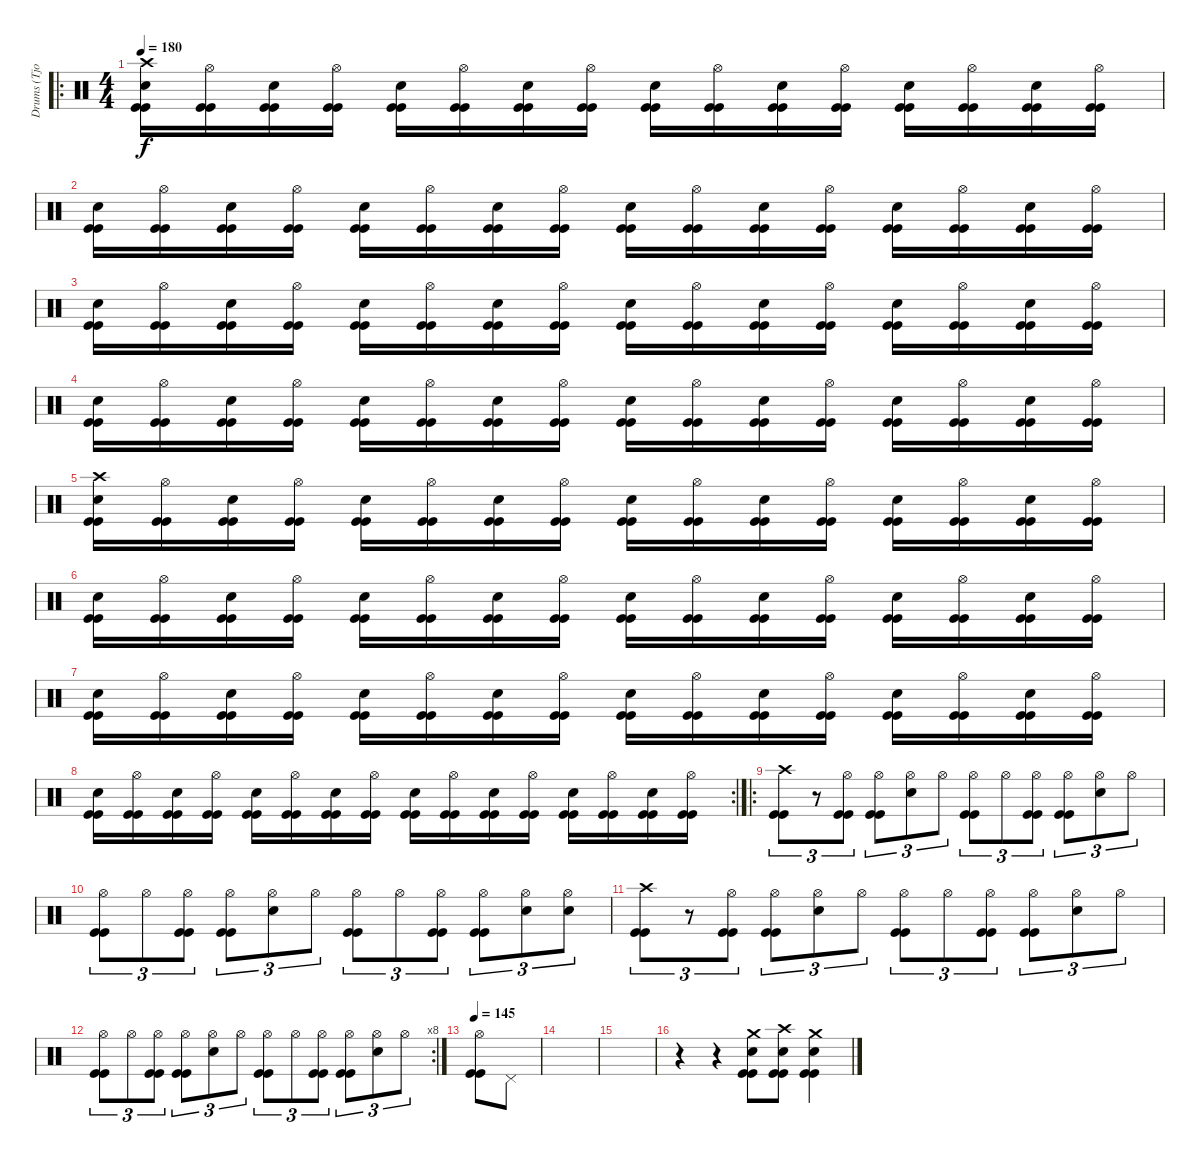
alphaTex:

\track ("Drums (Tjodalv)" "Drums (Tjo") {instrument percussion}
\staff {score}
\articulation defaults
\ro
\ts (4 4)
\tempo 180
\clef neutral
\ks c
("Snare (hit) 2" "Crash high (hit)" "Kick (hit)" "Kick (hit)").16{dy f} ("Hi-Hat (open)" "Kick (hit)" "Kick (hit)").16 ("Snare (hit) 2" "Kick (hit)" "Kick (hit)").16 ("Hi-Hat (open)" "Kick (hit)" "Kick (hit)").16 ("Snare (hit) 2" "Kick (hit)" "Kick (hit)").16 ("Hi-Hat (open)" "Kick (hit)" "Kick (hit)").16 ("Snare (hit) 2" "Kick (hit)" "Kick (hit)").16 ("Hi-Hat (open)" "Kick (hit)" "Kick (hit)").16 ("Snare (hit) 2" "Kick (hit)" "Kick (hit)").16 ("Hi-Hat (open)" "Kick (hit)" "Kick (hit)").16 ("Snare (hit) 2" "Kick (hit)" "Kick (hit)").16 ("Hi-Hat (open)" "Kick (hit)" "Kick (hit)").16 ("Snare (hit) 2" "Kick (hit)" "Kick (hit)").16 ("Hi-Hat (open)" "Kick (hit)" "Kick (hit)").16 ("Snare (hit) 2" "Kick (hit)" "Kick (hit)").16 ("Hi-Hat (open)" "Kick (hit)" "Kick (hit)").16 |
("Snare (hit) 2" "Kick (hit)" "Kick (hit)").16 ("Hi-Hat (open)" "Kick (hit)" "Kick (hit)").16 ("Snare (hit) 2" "Kick (hit)" "Kick (hit)").16 ("Hi-Hat (open)" "Kick (hit)" "Kick (hit)").16 ("Snare (hit) 2" "Kick (hit)" "Kick (hit)").16 ("Hi-Hat (open)" "Kick (hit)" "Kick (hit)").16 ("Snare (hit) 2" "Kick (hit)" "Kick (hit)").16 ("Hi-Hat (open)" "Kick (hit)" "Kick (hit)").16 ("Snare (hit) 2" "Kick (hit)" "Kick (hit)").16 ("Hi-Hat (open)" "Kick (hit)" "Kick (hit)").16 ("Snare (hit) 2" "Kick (hit)" "Kick (hit)").16 ("Hi-Hat (open)" "Kick (hit)" "Kick (hit)").16 ("Snare (hit) 2" "Kick (hit)" "Kick (hit)").16 ("Hi-Hat (open)" "Kick (hit)" "Kick (hit)").16 ("Snare (hit) 2" "Kick (hit)" "Kick (hit)").16 ("Hi-Hat (open)" "Kick (hit)" "Kick (hit)").16 |
("Snare (hit) 2" "Kick (hit)" "Kick (hit)").16 ("Hi-Hat (open)" "Kick (hit)" "Kick (hit)").16 ("Snare (hit) 2" "Kick (hit)" "Kick (hit)").16 ("Hi-Hat (open)" "Kick (hit)" "Kick (hit)").16 ("Snare (hit) 2" "Kick (hit)" "Kick (hit)").16 ("Hi-Hat (open)" "Kick (hit)" "Kick (hit)").16 ("Snare (hit) 2" "Kick (hit)" "Kick (hit)").16 ("Hi-Hat (open)" "Kick (hit)" "Kick (hit)").16 ("Snare (hit) 2" "Kick (hit)" "Kick (hit)").16 ("Hi-Hat (open)" "Kick (hit)" "Kick (hit)").16 ("Snare (hit) 2" "Kick (hit)" "Kick (hit)").16 ("Hi-Hat (open)" "Kick (hit)" "Kick (hit)").16 ("Snare (hit) 2" "Kick (hit)" "Kick (hit)").16 ("Hi-Hat (open)" "Kick (hit)" "Kick (hit)").16 ("Snare (hit) 2" "Kick (hit)" "Kick (hit)").16 ("Hi-Hat (open)" "Kick (hit)" "Kick (hit)").16 |
("Snare (hit) 2" "Kick (hit)" "Kick (hit)").16 ("Hi-Hat (open)" "Kick (hit)" "Kick (hit)").16 ("Snare (hit) 2" "Kick (hit)" "Kick (hit)").16 ("Hi-Hat (open)" "Kick (hit)" "Kick (hit)").16 ("Snare (hit) 2" "Kick (hit)" "Kick (hit)").16 ("Hi-Hat (open)" "Kick (hit)" "Kick (hit)").16 ("Snare (hit) 2" "Kick (hit)" "Kick (hit)").16 ("Hi-Hat (open)" "Kick (hit)" "Kick (hit)").16 ("Snare (hit) 2" "Kick (hit)" "Kick (hit)").16 ("Hi-Hat (open)" "Kick (hit)" "Kick (hit)").16 ("Snare (hit) 2" "Kick (hit)" "Kick (hit)").16 ("Hi-Hat (open)" "Kick (hit)" "Kick (hit)").16 ("Snare (hit) 2" "Kick (hit)" "Kick (hit)").16 ("Hi-Hat (open)" "Kick (hit)" "Kick (hit)").16 ("Snare (hit) 2" "Kick (hit)" "Kick (hit)").16 ("Hi-Hat (open)" "Kick (hit)" "Kick (hit)").16 |
("Snare (hit) 2" "Crash high (hit)" "Kick (hit)" "Kick (hit)").16 ("Hi-Hat (open)" "Kick (hit)" "Kick (hit)").16 ("Snare (hit) 2" "Kick (hit)" "Kick (hit)").16 ("Hi-Hat (open)" "Kick (hit)" "Kick (hit)").16 ("Snare (hit) 2" "Kick (hit)" "Kick (hit)").16 ("Hi-Hat (open)" "Kick (hit)" "Kick (hit)").16 ("Snare (hit) 2" "Kick (hit)" "Kick (hit)").16 ("Hi-Hat (open)" "Kick (hit)" "Kick (hit)").16 ("Snare (hit) 2" "Kick (hit)" "Kick (hit)").16 ("Hi-Hat (open)" "Kick (hit)" "Kick (hit)").16 ("Snare (hit) 2" "Kick (hit)" "Kick (hit)").16 ("Hi-Hat (open)" "Kick (hit)" "Kick (hit)").16 ("Snare (hit) 2" "Kick (hit)" "Kick (hit)").16 ("Hi-Hat (open)" "Kick (hit)" "Kick (hit)").16 ("Snare (hit) 2" "Kick (hit)" "Kick (hit)").16 ("Hi-Hat (open)" "Kick (hit)" "Kick (hit)").16 |
("Snare (hit) 2" "Kick (hit)" "Kick (hit)").16 ("Hi-Hat (open)" "Kick (hit)" "Kick (hit)").16 ("Snare (hit) 2" "Kick (hit)" "Kick (hit)").16 ("Hi-Hat (open)" "Kick (hit)" "Kick (hit)").16 ("Snare (hit) 2" "Kick (hit)" "Kick (hit)").16 ("Hi-Hat (open)" "Kick (hit)" "Kick (hit)").16 ("Snare (hit) 2" "Kick (hit)" "Kick (hit)").16 ("Hi-Hat (open)" "Kick (hit)" "Kick (hit)").16 ("Snare (hit) 2" "Kick (hit)" "Kick (hit)").16 ("Hi-Hat (open)" "Kick (hit)" "Kick (hit)").16 ("Snare (hit) 2" "Kick (hit)" "Kick (hit)").16 ("Hi-Hat (open)" "Kick (hit)" "Kick (hit)").16 ("Snare (hit) 2" "Kick (hit)" "Kick (hit)").16 ("Hi-Hat (open)" "Kick (hit)" "Kick (hit)").16 ("Snare (hit) 2" "Kick (hit)" "Kick (hit)").16 ("Hi-Hat (open)" "Kick (hit)" "Kick (hit)").16 |
("Snare (hit) 2" "Kick (hit)" "Kick (hit)").16 ("Hi-Hat (open)" "Kick (hit)" "Kick (hit)").16 ("Snare (hit) 2" "Kick (hit)" "Kick (hit)").16 ("Hi-Hat (open)" "Kick (hit)" "Kick (hit)").16 ("Snare (hit) 2" "Kick (hit)" "Kick (hit)").16 ("Hi-Hat (open)" "Kick (hit)" "Kick (hit)").16 ("Snare (hit) 2" "Kick (hit)" "Kick (hit)").16 ("Hi-Hat (open)" "Kick (hit)" "Kick (hit)").16 ("Snare (hit) 2" "Kick (hit)" "Kick (hit)").16 ("Hi-Hat (open)" "Kick (hit)" "Kick (hit)").16 ("Snare (hit) 2" "Kick (hit)" "Kick (hit)").16 ("Hi-Hat (open)" "Kick (hit)" "Kick (hit)").16 ("Snare (hit) 2" "Kick (hit)" "Kick (hit)").16 ("Hi-Hat (open)" "Kick (hit)" "Kick (hit)").16 ("Snare (hit) 2" "Kick (hit)" "Kick (hit)").16 ("Hi-Hat (open)" "Kick (hit)" "Kick (hit)").16 |
\rc 2
("Snare (hit) 2" "Kick (hit)" "Kick (hit)").16 ("Hi-Hat (open)" "Kick (hit)" "Kick (hit)").16 ("Snare (hit) 2" "Kick (hit)" "Kick (hit)").16 ("Hi-Hat (open)" "Kick (hit)" "Kick (hit)").16 ("Snare (hit) 2" "Kick (hit)" "Kick (hit)").16 ("Hi-Hat (open)" "Kick (hit)" "Kick (hit)").16 ("Snare (hit) 2" "Kick (hit)" "Kick (hit)").16 ("Hi-Hat (open)" "Kick (hit)" "Kick (hit)").16 ("Snare (hit) 2" "Kick (hit)" "Kick (hit)").16 ("Hi-Hat (open)" "Kick (hit)" "Kick (hit)").16 ("Snare (hit) 2" "Kick (hit)" "Kick (hit)").16 ("Hi-Hat (open)" "Kick (hit)" "Kick (hit)").16 ("Snare (hit) 2" "Kick (hit)" "Kick (hit)").16 ("Hi-Hat (open)" "Kick (hit)" "Kick (hit)").16 ("Snare (hit) 2" "Kick (hit)" "Kick (hit)").16 ("Hi-Hat (open)" "Kick (hit)" "Kick (hit)").16 |
\ro
("Crash high (hit)" "Kick (hit)" "Kick (hit)").8{tu (3 2)} r.8{tu (3 2)} ("Hi-Hat (open)" "Kick (hit)" "Kick (hit)").8{tu (3 2)} ("Hi-Hat (open)" "Kick (hit)" "Kick (hit)").8{tu (3 2)} ("Snare (hit) 2" "Hi-Hat (open)").8{tu (3 2)} "Hi-Hat (open)".8{tu (3 2)} ("Hi-Hat (open)" "Kick (hit)" "Kick (hit)").8{tu (3 2)} "Hi-Hat (open)".8{tu (3 2)} ("Hi-Hat (open)" "Kick (hit)" "Kick (hit)").8{tu (3 2)} ("Hi-Hat (open)" "Kick (hit)" "Kick (hit)").8{tu (3 2)} ("Snare (hit) 2" "Hi-Hat (open)").8{tu (3 2)} "Hi-Hat (open)".8{tu (3 2)} |
("Hi-Hat (open)" "Kick (hit)" "Kick (hit)").8{tu (3 2)} "Hi-Hat (open)".8{tu (3 2)} ("Hi-Hat (open)" "Kick (hit)" "Kick (hit)").8{tu (3 2)} ("Hi-Hat (open)" "Kick (hit)" "Kick (hit)").8{tu (3 2)} ("Snare (hit) 2" "Hi-Hat (open)").8{tu (3 2)} "Hi-Hat (open)".8{tu (3 2)} ("Hi-Hat (open)" "Kick (hit)" "Kick (hit)").8{tu (3 2)} "Hi-Hat (open)".8{tu (3 2)} ("Hi-Hat (open)" "Kick (hit)" "Kick (hit)").8{tu (3 2)} ("Hi-Hat (open)" "Kick (hit)" "Kick (hit)").8{tu (3 2)} ("Snare (hit) 2" "Hi-Hat (open)").8{tu (3 2)} ("Snare (hit) 2" "Hi-Hat (open)").8{tu (3 2)} |
("Crash high (hit)" "Kick (hit)" "Kick (hit)").8{tu (3 2)} r.8{tu (3 2)} ("Hi-Hat (open)" "Kick (hit)" "Kick (hit)").8{tu (3 2)} ("Hi-Hat (open)" "Kick (hit)" "Kick (hit)").8{tu (3 2)} ("Snare (hit) 2" "Hi-Hat (open)").8{tu (3 2)} "Hi-Hat (open)".8{tu (3 2)} ("Hi-Hat (open)" "Kick (hit)" "Kick (hit)").8{tu (3 2)} "Hi-Hat (open)".8{tu (3 2)} ("Hi-Hat (open)" "Kick (hit)" "Kick (hit)").8{tu (3 2)} ("Hi-Hat (open)" "Kick (hit)" "Kick (hit)").8{tu (3 2)} ("Snare (hit) 2" "Hi-Hat (open)").8{tu (3 2)} "Hi-Hat (open)".8{tu (3 2)} |
\rc 8
("Hi-Hat (open)" "Kick (hit)" "Kick (hit)").8{tu (3 2)} "Hi-Hat (open)".8{tu (3 2)} ("Hi-Hat (open)" "Kick (hit)" "Kick (hit)").8{tu (3 2)} ("Hi-Hat (open)" "Kick (hit)" "Kick (hit)").8{tu (3 2)} ("Snare (hit) 2" "Hi-Hat (open)").8{tu (3 2)} "Hi-Hat (open)".8{tu (3 2)} ("Hi-Hat (open)" "Kick (hit)" "Kick (hit)").8{tu (3 2)} "Hi-Hat (open)".8{tu (3 2)} ("Hi-Hat (open)" "Kick (hit)" "Kick (hit)").8{tu (3 2)} ("Hi-Hat (open)" "Kick (hit)" "Kick (hit)").8{tu (3 2)} ("Snare (hit) 2" "Hi-Hat (open)").8{tu (3 2)} "Hi-Hat (open)".8{tu (3 2)} |
\tempo 145
("Hi-Hat (open)" "Kick (hit)" "Kick (hit)").8 "Pedal Hi-Hat (hit)".8 |
|
|
r.4 r.4 ("Snare (hit) 2" "Crash medium (hit)" "Kick (hit)" "Kick (hit)").8 ("Snare (hit) 2" "Crash high (hit)" "Kick (hit)" "Kick (hit)").8 ("Snare (hit) 2" "Crash medium (hit)" "Kick (hit)" "Kick (hit)").4
